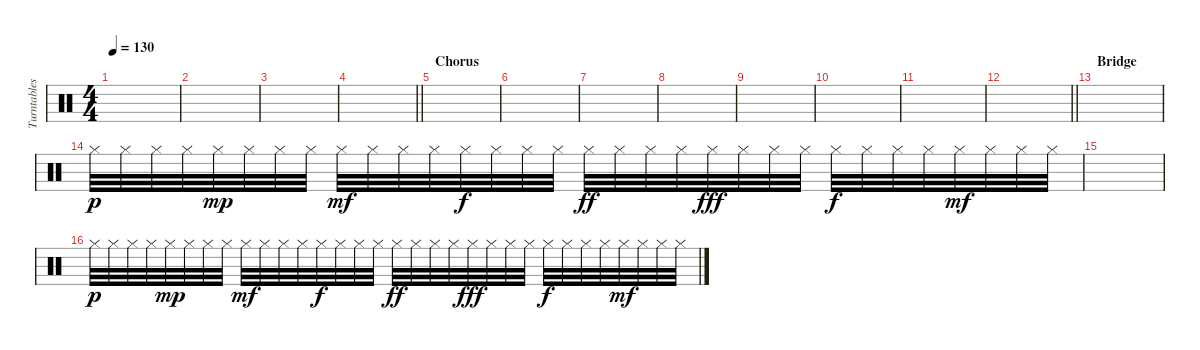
\track ("Turntables - Joe Hahn" "Turntables") {instrument percussion}
\staff {score}
\articulation defaults
\ts (4 4)
\tempo 130
\clef neutral
\ks c
|
|
|
\barLineRight lightlight
|
\section ("" "Chorus")
|
|
|
|
|
|
|
\barLineRight lightlight
|
\section ("" "Bridge")
|
"Hi-Hat (closed)".32{dy p} "Hi-Hat (closed)".32 "Hi-Hat (closed)".32 "Hi-Hat (closed)".32 "Hi-Hat (closed)".32{dy mp} "Hi-Hat (closed)".32 "Hi-Hat (closed)".32 "Hi-Hat (closed)".32 "Hi-Hat (closed)".32{dy mf} "Hi-Hat (closed)".32 "Hi-Hat (closed)".32 "Hi-Hat (closed)".32 "Hi-Hat (closed)".32{dy f} "Hi-Hat (closed)".32 "Hi-Hat (closed)".32 "Hi-Hat (closed)".32 "Hi-Hat (closed)".32{dy ff} "Hi-Hat (closed)".32 "Hi-Hat (closed)".32 "Hi-Hat (closed)".32 "Hi-Hat (closed)".32{dy fff} "Hi-Hat (closed)".32 "Hi-Hat (closed)".32 "Hi-Hat (closed)".32 "Hi-Hat (closed)".32{dy f} "Hi-Hat (closed)".32 "Hi-Hat (closed)".32 "Hi-Hat (closed)".32 "Hi-Hat (closed)".32{dy mf} "Hi-Hat (closed)".32 "Hi-Hat (closed)".32 "Hi-Hat (closed)".32 |
|
"Hi-Hat (closed)".32{dy p} "Hi-Hat (closed)".32 "Hi-Hat (closed)".32 "Hi-Hat (closed)".32 "Hi-Hat (closed)".32{dy mp} "Hi-Hat (closed)".32 "Hi-Hat (closed)".32 "Hi-Hat (closed)".32 "Hi-Hat (closed)".32{dy mf} "Hi-Hat (closed)".32 "Hi-Hat (closed)".32 "Hi-Hat (closed)".32 "Hi-Hat (closed)".32{dy f} "Hi-Hat (closed)".32 "Hi-Hat (closed)".32 "Hi-Hat (closed)".32 "Hi-Hat (closed)".32{dy ff} "Hi-Hat (closed)".32 "Hi-Hat (closed)".32 "Hi-Hat (closed)".32 "Hi-Hat (closed)".32{dy fff} "Hi-Hat (closed)".32 "Hi-Hat (closed)".32 "Hi-Hat (closed)".32 "Hi-Hat (closed)".32{dy f} "Hi-Hat (closed)".32 "Hi-Hat (closed)".32 "Hi-Hat (closed)".32 "Hi-Hat (closed)".32{dy mf} "Hi-Hat (closed)".32 "Hi-Hat (closed)".32 "Hi-Hat (closed)".32
